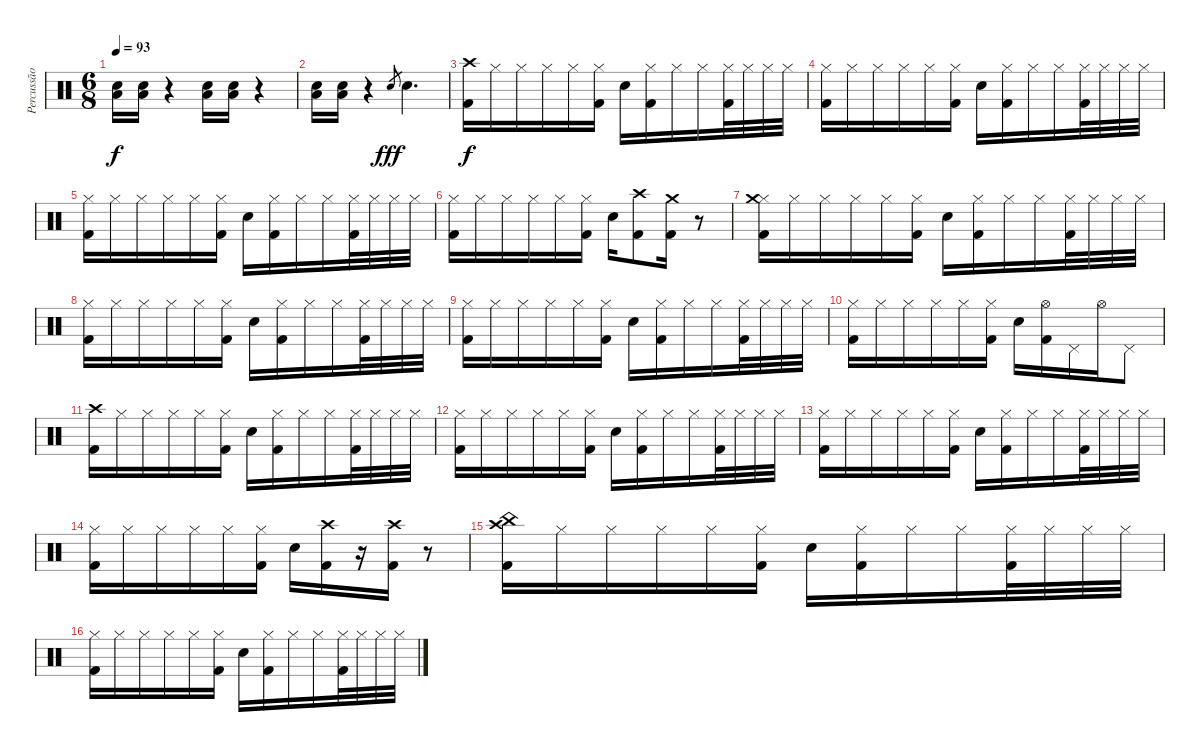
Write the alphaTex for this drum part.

\track ("Percussão" "Percussão") {instrument percussion}
\staff {score}
\articulation defaults
\ts (6 8)
\tempo 93
\clef neutral
\ks c
("Snare (hit) 2" "Low Floor Tom (hit)").16{dy f} ("Snare (hit) 2" "Low Floor Tom (hit)").16 r.4 ("Snare (hit) 2" "Low Floor Tom (hit)").16 ("Snare (hit) 2" "Low Floor Tom (hit)").16 r.4 |
("Snare (hit) 2" "Low Floor Tom (hit)").16 ("Snare (hit) 2" "Low Floor Tom (hit)").16 r.4 "Snare (hit) 2".8{gr dy fff} "Snare (hit) 2".4{d} |
("Crash high (hit)" "Kick (hit) 2").16{dy f} "Hi-Hat (closed)".16 "Hi-Hat (closed)".16 "Hi-Hat (closed)".16 "Hi-Hat (closed)".16 ("Hi-Hat (closed)" "Kick (hit) 2").16 "Snare (hit) 2".16 ("Hi-Hat (closed)" "Kick (hit) 2").16 "Hi-Hat (closed)".16 "Hi-Hat (closed)".16 ("Hi-Hat (closed)" "Kick (hit) 2").32 "Hi-Hat (closed)".32 "Hi-Hat (closed)".32 "Hi-Hat (closed)".32 |
("Hi-Hat (closed)" "Kick (hit) 2").16 "Hi-Hat (closed)".16 "Hi-Hat (closed)".16 "Hi-Hat (closed)".16 "Hi-Hat (closed)".16 ("Hi-Hat (closed)" "Kick (hit) 2").16 "Snare (hit) 2".16 ("Hi-Hat (closed)" "Kick (hit) 2").16 "Hi-Hat (closed)".16 "Hi-Hat (closed)".16 ("Hi-Hat (closed)" "Kick (hit) 2").32 "Hi-Hat (closed)".32 "Hi-Hat (closed)".32 "Hi-Hat (closed)".32 |
("Hi-Hat (closed)" "Kick (hit) 2").16 "Hi-Hat (closed)".16 "Hi-Hat (closed)".16 "Hi-Hat (closed)".16 "Hi-Hat (closed)".16 ("Hi-Hat (closed)" "Kick (hit) 2").16 "Snare (hit) 2".16 ("Hi-Hat (closed)" "Kick (hit) 2").16 "Hi-Hat (closed)".16 "Hi-Hat (closed)".16 ("Hi-Hat (closed)" "Kick (hit) 2").32 "Hi-Hat (closed)".32 "Hi-Hat (closed)".32 "Hi-Hat (closed)".32 |
("Hi-Hat (closed)" "Kick (hit) 2").16 "Hi-Hat (closed)".16 "Hi-Hat (closed)".16 "Hi-Hat (closed)".16 "Hi-Hat (closed)".16 ("Hi-Hat (closed)" "Kick (hit) 2").16 "Snare (hit) 2".16 ("Crash high (hit)" "Kick (hit) 2").8 ("Crash medium (hit)" "Kick (hit) 2").16 r.8 |
("Hi-Hat (closed)" "Crash medium (hit)" "Kick (hit) 2").16 "Hi-Hat (closed)".16 "Hi-Hat (closed)".16 "Hi-Hat (closed)".16 "Hi-Hat (closed)".16 ("Hi-Hat (closed)" "Kick (hit) 2").16 "Snare (hit) 2".16 ("Hi-Hat (closed)" "Kick (hit) 2").16 "Hi-Hat (closed)".16 "Hi-Hat (closed)".16 ("Hi-Hat (closed)" "Kick (hit) 2").32 "Hi-Hat (closed)".32 "Hi-Hat (closed)".32 "Hi-Hat (closed)".32 |
("Hi-Hat (closed)" "Kick (hit) 2").16 "Hi-Hat (closed)".16 "Hi-Hat (closed)".16 "Hi-Hat (closed)".16 "Hi-Hat (closed)".16 ("Hi-Hat (closed)" "Kick (hit) 2").16 "Snare (hit) 2".16 ("Hi-Hat (closed)" "Kick (hit) 2").16 "Hi-Hat (closed)".16 "Hi-Hat (closed)".16 ("Hi-Hat (closed)" "Kick (hit) 2").32 "Hi-Hat (closed)".32 "Hi-Hat (closed)".32 "Hi-Hat (closed)".32 |
("Hi-Hat (closed)" "Kick (hit) 2").16 "Hi-Hat (closed)".16 "Hi-Hat (closed)".16 "Hi-Hat (closed)".16 "Hi-Hat (closed)".16 ("Hi-Hat (closed)" "Kick (hit) 2").16 "Snare (hit) 2".16 ("Hi-Hat (closed)" "Kick (hit) 2").16 "Hi-Hat (closed)".16 "Hi-Hat (closed)".16 ("Hi-Hat (closed)" "Kick (hit) 2").32 "Hi-Hat (closed)".32 "Hi-Hat (closed)".32 "Hi-Hat (closed)".32 |
("Hi-Hat (closed)" "Kick (hit) 2").16 "Hi-Hat (closed)".16 "Hi-Hat (closed)".16 "Hi-Hat (closed)".16 "Hi-Hat (closed)".16 ("Hi-Hat (closed)" "Kick (hit) 2").16 "Snare (hit) 2".16 ("Hi-Hat (open)" "Kick (hit) 2").16 "Pedal Hi-Hat (hit)".16 "Hi-Hat (open)".16 "Pedal Hi-Hat (hit)".8 |
("Crash high (hit)" "Kick (hit) 2").16 "Hi-Hat (closed)".16 "Hi-Hat (closed)".16 "Hi-Hat (closed)".16 "Hi-Hat (closed)".16 ("Hi-Hat (closed)" "Kick (hit) 2").16 "Snare (hit) 2".16 ("Hi-Hat (closed)" "Kick (hit) 2").16 "Hi-Hat (closed)".16 "Hi-Hat (closed)".16 ("Hi-Hat (closed)" "Kick (hit) 2").32 "Hi-Hat (closed)".32 "Hi-Hat (closed)".32 "Hi-Hat (closed)".32 |
("Hi-Hat (closed)" "Kick (hit) 2").16 "Hi-Hat (closed)".16 "Hi-Hat (closed)".16 "Hi-Hat (closed)".16 "Hi-Hat (closed)".16 ("Hi-Hat (closed)" "Kick (hit) 2").16 "Snare (hit) 2".16 ("Hi-Hat (closed)" "Kick (hit) 2").16 "Hi-Hat (closed)".16 "Hi-Hat (closed)".16 ("Hi-Hat (closed)" "Kick (hit) 2").32 "Hi-Hat (closed)".32 "Hi-Hat (closed)".32 "Hi-Hat (closed)".32 |
("Hi-Hat (closed)" "Kick (hit) 2").16 "Hi-Hat (closed)".16 "Hi-Hat (closed)".16 "Hi-Hat (closed)".16 "Hi-Hat (closed)".16 ("Hi-Hat (closed)" "Kick (hit) 2").16 "Snare (hit) 2".16 ("Hi-Hat (closed)" "Kick (hit) 2").16 "Hi-Hat (closed)".16 "Hi-Hat (closed)".16 ("Hi-Hat (closed)" "Kick (hit) 2").32 "Hi-Hat (closed)".32 "Hi-Hat (closed)".32 "Hi-Hat (closed)".32 |
("Hi-Hat (closed)" "Kick (hit) 2").16 "Hi-Hat (closed)".16 "Hi-Hat (closed)".16 "Hi-Hat (closed)".16 "Hi-Hat (closed)".16 ("Hi-Hat (closed)" "Kick (hit) 2").16 "Snare (hit) 2".16 ("Crash high (hit)" "Kick (hit) 2").16 r.16 ("Crash high (hit)" "Kick (hit) 2").16 r.8 |
("Crash high (hit)" "China (hit)" "Kick (hit) 2").16 "Hi-Hat (closed)".16 "Hi-Hat (closed)".16 "Hi-Hat (closed)".16 "Hi-Hat (closed)".16 ("Hi-Hat (closed)" "Kick (hit) 2").16 "Snare (hit) 2".16 ("Hi-Hat (closed)" "Kick (hit) 2").16 "Hi-Hat (closed)".16 "Hi-Hat (closed)".16 ("Hi-Hat (closed)" "Kick (hit) 2").32 "Hi-Hat (closed)".32 "Hi-Hat (closed)".32 "Hi-Hat (closed)".32 |
("Hi-Hat (closed)" "Kick (hit) 2").16 "Hi-Hat (closed)".16 "Hi-Hat (closed)".16 "Hi-Hat (closed)".16 "Hi-Hat (closed)".16 ("Hi-Hat (closed)" "Kick (hit) 2").16 "Snare (hit) 2".16 ("Hi-Hat (closed)" "Kick (hit) 2").16 "Hi-Hat (closed)".16 "Hi-Hat (closed)".16 ("Hi-Hat (closed)" "Kick (hit) 2").32 "Hi-Hat (closed)".32 "Hi-Hat (closed)".32 "Hi-Hat (closed)".32
